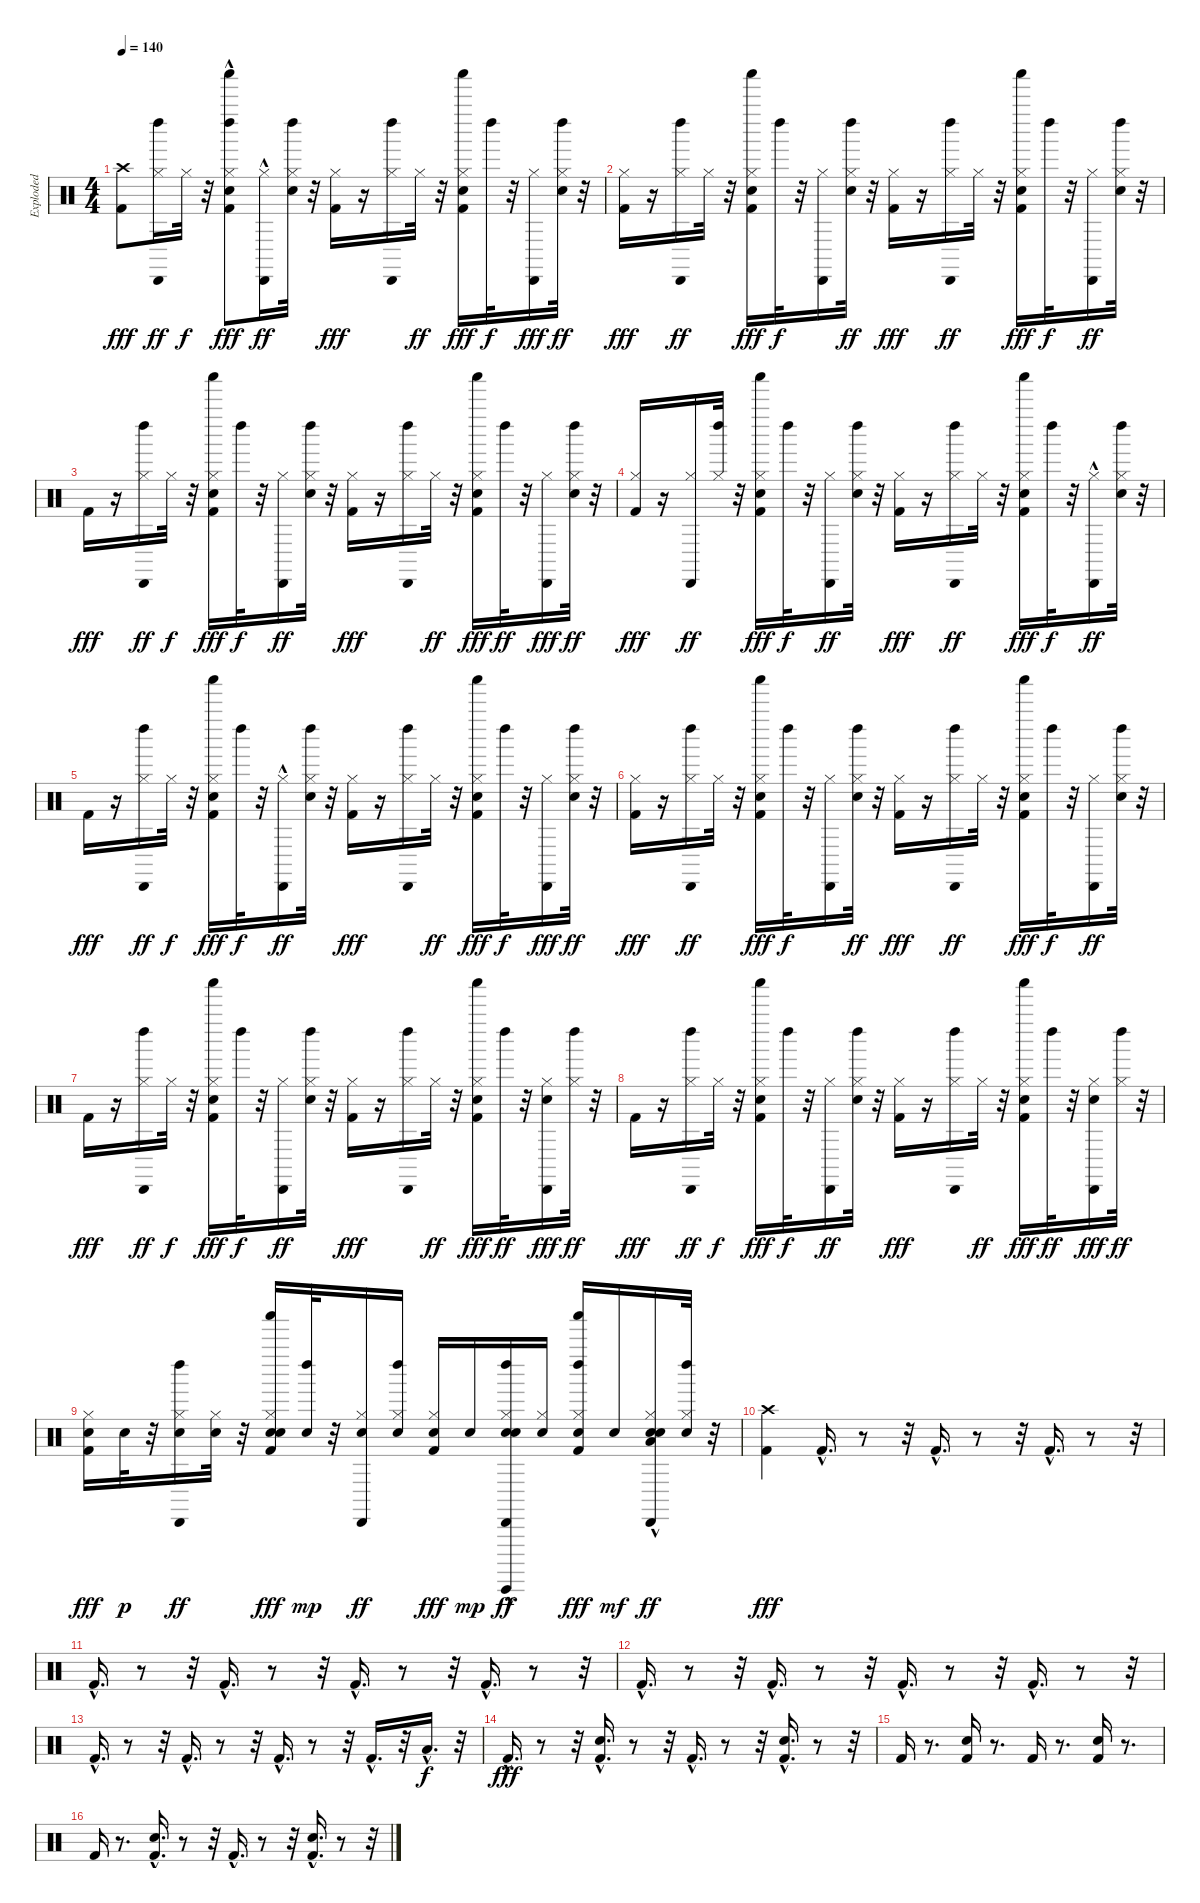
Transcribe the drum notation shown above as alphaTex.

\track ("Exploded" "Exploded") {instrument percussion}
\staff {score}
\articulation defaults
\ts (4 4)
\tempo 140
\clef neutral
\ks c
("Crash high (hit)" "Kick (hit) 2").8{dy fff} ("Left Maraca (hit)" "Cabasa (hit)" "Hi-Hat (closed)").16{dy ff} "Hi-Hat (closed)".32{dy f} r.32 ("Left Maraca (hit)" "Hand Clap (hit)"{hac} "Shaker (hit)" "Hi-Hat (closed)" "Kick (hit) 2").8{dy fff} ("Cabasa (hit)"{hac} "Hi-Hat (closed)").16{dy ff} ("Snare (hit) 2" "Left Maraca (hit)" "Hi-Hat (closed)").32 r.32 ("Hi-Hat (closed)" "Kick (hit) 2").16{dy fff} r.16 ("Left Maraca (hit)" "Cabasa (hit)" "Hi-Hat (closed)").16 "Hi-Hat (closed)".32{dy ff} r.32 ("Hand Clap (hit)" "Shaker (hit)" "Hi-Hat (closed)" "Kick (hit) 2").16{dy fff} "Left Maraca (hit)".32{dy f} r.32 ("Cabasa (hit)" "Hi-Hat (closed)").16{dy fff} ("Snare (hit) 2" "Left Maraca (hit)" "Hi-Hat (closed)").32{dy ff} r.32 |
("Hi-Hat (closed)" "Kick (hit) 2").16{dy fff} r.16 ("Left Maraca (hit)" "Cabasa (hit)" "Hi-Hat (closed)").16{dy ff} "Hi-Hat (closed)".32 r.32 ("Hand Clap (hit)" "Shaker (hit)" "Hi-Hat (closed)" "Kick (hit) 2").16{dy fff} "Left Maraca (hit)".32{dy f} r.32 ("Cabasa (hit)" "Hi-Hat (closed)").16 ("Snare (hit) 2" "Left Maraca (hit)" "Hi-Hat (closed)").32{dy ff} r.32 ("Hi-Hat (closed)" "Kick (hit) 2").16{dy fff} r.16 ("Left Maraca (hit)" "Cabasa (hit)" "Hi-Hat (closed)").16{dy ff} "Hi-Hat (closed)".32 r.32 ("Hand Clap (hit)" "Shaker (hit)" "Hi-Hat (closed)" "Kick (hit) 2").16{dy fff} "Left Maraca (hit)".32{dy f} r.32 ("Cabasa (hit)" "Hi-Hat (closed)").16{dy ff} ("Snare (hit) 2" "Left Maraca (hit)" "Hi-Hat (closed)").32 r.32 |
"Kick (hit) 2".16{dy fff} r.16 ("Left Maraca (hit)" "Cabasa (hit)" "Hi-Hat (closed)").16{dy ff} "Hi-Hat (closed)".32{dy f} r.32 ("Hand Clap (hit)" "Shaker (hit)" "Hi-Hat (closed)" "Kick (hit) 2").16{dy fff} "Left Maraca (hit)".32{dy f} r.32 ("Cabasa (hit)" "Hi-Hat (closed)").16{dy ff} ("Snare (hit) 2" "Left Maraca (hit)" "Hi-Hat (closed)").32 r.32 ("Hi-Hat (closed)" "Kick (hit) 2").16{dy fff} r.16 ("Left Maraca (hit)" "Cabasa (hit)" "Hi-Hat (closed)").16 "Hi-Hat (closed)".32{dy ff} r.32 ("Hand Clap (hit)" "Shaker (hit)" "Hi-Hat (closed)" "Kick (hit) 2").16{dy fff} "Left Maraca (hit)".32{dy ff} r.32 ("Cabasa (hit)" "Hi-Hat (closed)").16{dy fff} ("Snare (hit) 2" "Left Maraca (hit)" "Hi-Hat (closed)").32{dy ff} r.32 |
("Hi-Hat (closed)" "Kick (hit) 2").16{dy fff} r.16 ("Cabasa (hit)" "Hi-Hat (closed)").16{dy ff} ("Left Maraca (hit)" "Hi-Hat (closed)").32 r.32 ("Hand Clap (hit)" "Shaker (hit)" "Hi-Hat (closed)" "Kick (hit) 2").16{dy fff} "Left Maraca (hit)".32{dy f} r.32 ("Cabasa (hit)" "Hi-Hat (closed)").16{dy ff} ("Snare (hit) 2" "Left Maraca (hit)" "Hi-Hat (closed)").32 r.32 ("Hi-Hat (closed)" "Kick (hit) 2").16{dy fff} r.16 ("Left Maraca (hit)" "Cabasa (hit)" "Hi-Hat (closed)").16{dy ff} "Hi-Hat (closed)".32 r.32 ("Hand Clap (hit)" "Shaker (hit)" "Hi-Hat (closed)" "Kick (hit) 2").16{dy fff} "Left Maraca (hit)".32{dy f} r.32 ("Cabasa (hit)"{hac} "Hi-Hat (closed)").16{dy ff} ("Snare (hit) 2" "Left Maraca (hit)" "Hi-Hat (closed)").32 r.32 |
"Kick (hit) 2".16{dy fff} r.16 ("Left Maraca (hit)" "Cabasa (hit)" "Hi-Hat (closed)").16{dy ff} "Hi-Hat (closed)".32{dy f} r.32 ("Hand Clap (hit)" "Shaker (hit)" "Hi-Hat (closed)" "Kick (hit) 2").16{dy fff} "Left Maraca (hit)".32{dy f} r.32 ("Cabasa (hit)"{hac} "Hi-Hat (closed)").16{dy ff} ("Snare (hit) 2" "Left Maraca (hit)" "Hi-Hat (closed)").32 r.32 ("Hi-Hat (closed)" "Kick (hit) 2").16{dy fff} r.16 ("Left Maraca (hit)" "Cabasa (hit)" "Hi-Hat (closed)").16 "Hi-Hat (closed)".32{dy ff} r.32 ("Hand Clap (hit)" "Shaker (hit)" "Hi-Hat (closed)" "Kick (hit) 2").16{dy fff} "Left Maraca (hit)".32{dy f} r.32 ("Cabasa (hit)" "Hi-Hat (closed)").16{dy fff} ("Snare (hit) 2" "Left Maraca (hit)" "Hi-Hat (closed)").32{dy ff} r.32 |
("Hi-Hat (closed)" "Kick (hit) 2").16{dy fff} r.16 ("Left Maraca (hit)" "Cabasa (hit)" "Hi-Hat (closed)").16{dy ff} "Hi-Hat (closed)".32 r.32 ("Hand Clap (hit)" "Shaker (hit)" "Hi-Hat (closed)" "Kick (hit) 2").16{dy fff} "Left Maraca (hit)".32{dy f} r.32 ("Cabasa (hit)" "Hi-Hat (closed)").16 ("Snare (hit) 2" "Left Maraca (hit)" "Hi-Hat (closed)").32{dy ff} r.32 ("Hi-Hat (closed)" "Kick (hit) 2").16{dy fff} r.16 ("Left Maraca (hit)" "Cabasa (hit)" "Hi-Hat (closed)").16{dy ff} "Hi-Hat (closed)".32 r.32 ("Hand Clap (hit)" "Shaker (hit)" "Hi-Hat (closed)" "Kick (hit) 2").16{dy fff} "Left Maraca (hit)".32{dy f} r.32 ("Cabasa (hit)" "Hi-Hat (closed)").16{dy ff} ("Snare (hit) 2" "Left Maraca (hit)" "Hi-Hat (closed)").32 r.32 |
"Kick (hit) 2".16{dy fff} r.16 ("Left Maraca (hit)" "Cabasa (hit)" "Hi-Hat (closed)").16{dy ff} "Hi-Hat (closed)".32{dy f} r.32 ("Hand Clap (hit)" "Shaker (hit)" "Hi-Hat (closed)" "Kick (hit) 2").16{dy fff} "Left Maraca (hit)".32{dy f} r.32 ("Cabasa (hit)" "Hi-Hat (closed)").16{dy ff} ("Snare (hit) 2" "Left Maraca (hit)" "Hi-Hat (closed)").32 r.32 ("Hi-Hat (closed)" "Kick (hit) 2").16{dy fff} r.16 ("Left Maraca (hit)" "Cabasa (hit)" "Hi-Hat (closed)").16 "Hi-Hat (closed)".32{dy ff} r.32 ("Hand Clap (hit)" "Shaker (hit)" "Hi-Hat (closed)" "Kick (hit) 2").16{dy fff} "Left Maraca (hit)".32{dy ff} r.32 ("Snare (hit) 2" "Cabasa (hit)" "Hi-Hat (closed)").16{dy fff} ("Left Maraca (hit)" "Hi-Hat (closed)").32{dy ff} r.32 |
"Kick (hit) 2".16{dy fff} r.16 ("Left Maraca (hit)" "Cabasa (hit)" "Hi-Hat (closed)").16{dy ff} "Hi-Hat (closed)".32{dy f} r.32 ("Hand Clap (hit)" "Shaker (hit)" "Hi-Hat (closed)" "Kick (hit) 2").16{dy fff} "Left Maraca (hit)".32{dy f} r.32 ("Cabasa (hit)" "Hi-Hat (closed)").16{dy ff} ("Snare (hit) 2" "Left Maraca (hit)" "Hi-Hat (closed)").32 r.32 ("Hi-Hat (closed)" "Kick (hit) 2").16{dy fff} r.16 ("Left Maraca (hit)" "Cabasa (hit)" "Hi-Hat (closed)").16 "Hi-Hat (closed)".32{dy ff} r.32 ("Hand Clap (hit)" "Shaker (hit)" "Hi-Hat (closed)" "Kick (hit) 2").16{dy fff} "Left Maraca (hit)".32{dy ff} r.32 ("Snare (hit) 2" "Cabasa (hit)" "Hi-Hat (closed)").16{dy fff} ("Left Maraca (hit)" "Hi-Hat (closed)").32{dy ff} r.32 |
("Snare (hit) 2" "Hi-Hat (closed)" "Kick (hit) 2").16{dy fff} "Snare (hit) 2".32{dy p} r.32 ("Left Maraca (hit)" "Snare (hit) 2" "Cabasa (hit)" "Hi-Hat (closed)").16{dy ff} ("Snare (hit) 2" "Hi-Hat (closed)").32 r.32 ("Snare (hit) 2" "Hand Clap (hit)" "Shaker (hit)" "Hi-Hat (closed)" "Kick (hit) 2").16{dy fff} ("Left Maraca (hit)" "Snare (hit) 2").32{dy mp} r.32 ("Snare (hit) 2" "Cabasa (hit)" "Hi-Hat (closed)").16{dy ff} ("Left Maraca (hit)" "Snare (hit) 2" "Hi-Hat (closed)").16 ("Snare (hit) 2" "Hi-Hat (closed)" "Kick (hit) 2").16{dy fff} "Snare (hit) 2".16{dy mp} ("Left Maraca (hit)" "Snare (hit) 2" "Hand Clap (hit)" "Guiro (hit)"{hac} "Cabasa (hit)" "Hi-Hat (closed)").16{dy ff} ("Snare (hit) 2" "Hi-Hat (closed)").16 ("Left Maraca (hit)" "Snare (hit) 2" "Shaker (hit)" "Hi-Hat (closed)" "Kick (hit) 2").16{dy fff} "Snare (hit) 2".16{dy mf} ("Low Floor Tom (hit)" "Snare (hit) 2" "Hand Clap (hit)" "Cabasa (hit)"{hac} "Hi-Hat (closed)").16{dy ff} ("Left Maraca (hit)" "Snare (hit) 2" "Hi-Hat (closed)").32 r.32 |
("Crash high (hit)" "Kick (hit) 2").4{dy fff} "Kick (hit) 2"{hac}.16{d} r.8 r.32 "Kick (hit) 2"{hac}.16{d} r.8 r.32 "Kick (hit) 2"{hac}.16{d} r.8 r.32 |
"Kick (hit) 2"{hac}.16{d} r.8 r.32 "Kick (hit) 2"{hac}.16{d} r.8 r.32 "Kick (hit) 2"{hac}.16{d} r.8 r.32 "Kick (hit) 2"{hac}.16{d} r.8 r.32 |
"Kick (hit) 2"{hac}.16{d} r.8 r.32 "Kick (hit) 2"{hac}.16{d} r.8 r.32 "Kick (hit) 2"{hac}.16{d} r.8 r.32 "Kick (hit) 2"{hac}.16{d} r.8 r.32 |
"Kick (hit) 2"{hac}.16{d} r.8 r.32 "Kick (hit) 2"{hac}.16{d} r.8 r.32 "Kick (hit) 2"{hac}.16{d} r.8 r.32 "Kick (hit) 2"{hac}.16{d} r.32 "Low Floor Tom (hit)"{hac}.16{d dy f} r.32 |
"Kick (hit) 2"{hac}.16{d dy fff} r.8 r.32 ("Hand Clap (hit)" "Kick (hit) 2"{hac}).16{d} r.8 r.32 "Kick (hit) 2"{hac}.16{d} r.8 r.32 ("Hand Clap (hit)" "Kick (hit) 2"{hac}).16{d} r.8 r.32 |
"Kick (hit) 2".16 r.8{d} ("Hand Clap (hit)" "Kick (hit) 2").16 r.8{d} "Kick (hit) 2".16 r.8{d} ("Hand Clap (hit)" "Kick (hit) 2").16 r.8{d} |
"Kick (hit) 2".16 r.8{d} ("Hand Clap (hit)" "Kick (hit) 2"{hac}).16{d} r.8 r.32 "Kick (hit) 2"{hac}.16{d} r.8 r.32 ("Hand Clap (hit)" "Kick (hit) 2"{hac}).16{d} r.8 r.32
